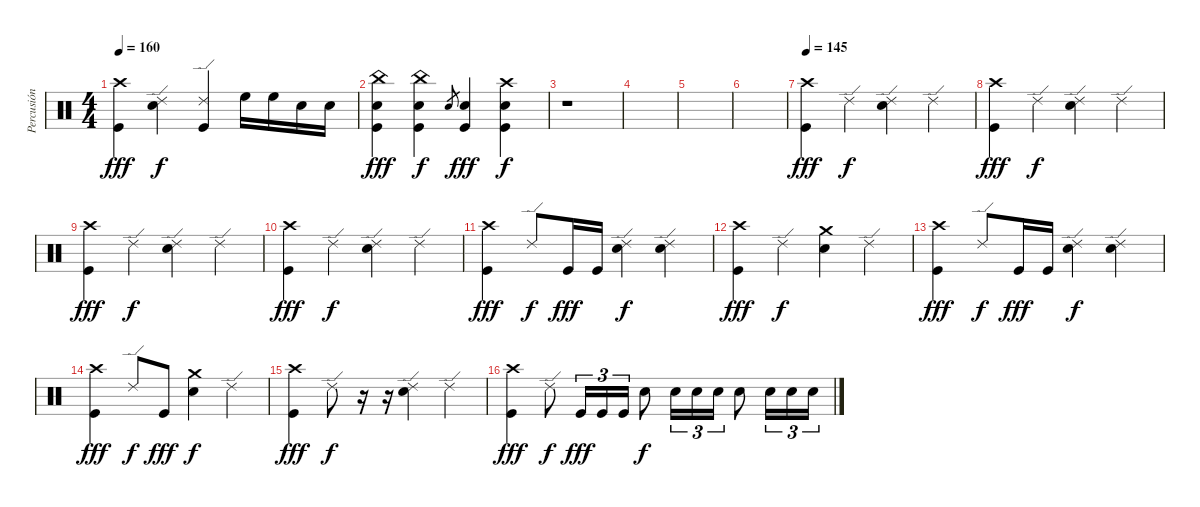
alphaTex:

\track ("Percusión" "Percusión") {instrument percussion}
\staff {score}
\articulation defaults
\ts (4 4)
\tempo 160
\clef neutral
\ks c
("Crash high (hit)" "Kick (hit)").4{dy fff} ("Ride (edge) 2" "Electric Snare (hit)").4{dy f} ("Ride (edge) 2" "Kick (hit)").4 "High Floor Tom (hit)".16 "High Floor Tom (hit)".16 "Electric Snare (hit)".16 "Electric Snare (hit)".16 |
("China (hit)" "Electric Snare (hit)" "Kick (hit)").4{dy fff} ("China (hit)" "Electric Snare (hit)" "Kick (hit)").4{dy f} "Electric Snare (hit)".8{gr} ("Electric Snare (hit)" "Kick (hit)").4{dy fff} ("Crash high (hit)" "Electric Snare (hit)" "Kick (hit)").4{dy f} |
r.1 |
|
|
|
\tempo 145
("Crash high (hit)" "Kick (hit)").4{dy fff} "Ride (edge) 2".4{dy f} ("Ride (edge) 2" "Electric Snare (hit)").4 "Ride (edge) 2".4 |
("Crash high (hit)" "Kick (hit)").4{dy fff} "Ride (edge) 2".4{dy f} ("Ride (edge) 2" "Electric Snare (hit)").4 "Ride (edge) 2".4 |
("Crash high (hit)" "Kick (hit)").4{dy fff} "Ride (edge) 2".4{dy f} ("Ride (edge) 2" "Electric Snare (hit)").4 "Ride (edge) 2".4 |
("Crash high (hit)" "Kick (hit)").4{dy fff} "Ride (edge) 2".4{dy f} ("Ride (edge) 2" "Electric Snare (hit)").4 "Ride (edge) 2".4 |
("Crash high (hit)" "Kick (hit)").4{dy fff} "Ride (edge) 2".8{dy f} "Kick (hit)".16{dy fff} "Kick (hit)".16 ("Ride (edge) 2" "Electric Snare (hit)").4{dy f} ("Ride (edge) 2" "Electric Snare (hit)").4 |
("Crash high (hit)" "Kick (hit)").4{dy fff} "Ride (edge) 2".4{dy f} ("Crash medium (hit)" "Electric Snare (hit)").4 "Ride (edge) 2".4 |
("Crash high (hit)" "Kick (hit)").4{dy fff} "Ride (edge) 2".8{dy f} "Kick (hit)".16{dy fff} "Kick (hit)".16 ("Ride (edge) 2" "Electric Snare (hit)").4{dy f} ("Ride (edge) 2" "Electric Snare (hit)").4 |
("Crash high (hit)" "Kick (hit)").4{dy fff} "Ride (edge) 2".8{dy f} "Kick (hit)".8{dy fff} ("Crash medium (hit)" "Electric Snare (hit)").4{dy f} "Ride (edge) 2".4 |
("Crash high (hit)" "Kick (hit)").4{dy fff} "Ride (edge) 2".8{dy f} r.16 r.16 ("Ride (edge) 2" "Electric Snare (hit)").4 "Ride (edge) 2".4 |
("Crash high (hit)" "Kick (hit)").4{dy fff} "Ride (edge) 2".8{dy f} "Kick (hit)".16{tu (3 2) dy fff} "Kick (hit)".16{tu (3 2)} "Kick (hit)".16{tu (3 2)} "Electric Snare (hit)".8{dy f} "Electric Snare (hit)".16{tu (3 2)} "Electric Snare (hit)".16{tu (3 2)} "Electric Snare (hit)".16{tu (3 2)} "Electric Snare (hit)".8 "Electric Snare (hit)".16{tu (3 2)} "Electric Snare (hit)".16{tu (3 2)} "Electric Snare (hit)".16{tu (3 2)}
